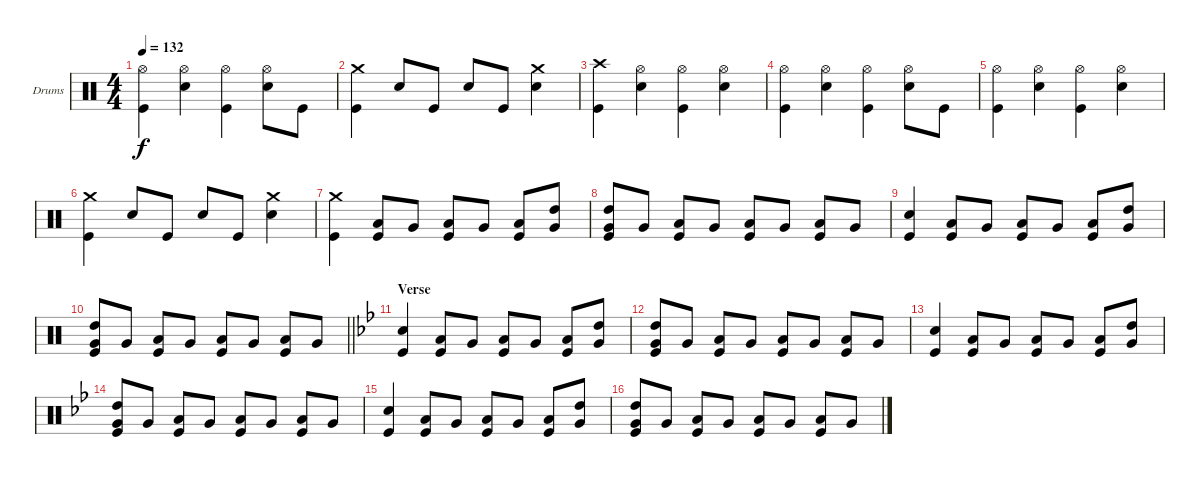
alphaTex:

\bracketExtendMode groupsimilarinstruments
\firstSystemTrackNameOrientation horizontal
\otherSystemsTrackNameOrientation horizontal
\track ("Drumkit" "Drums") {instrument percussion}
\staff {score}
\articulation defaults
\ts (4 4)
\tempo 132
\clef neutral
\ks c
("Hi-Hat (open)" "Kick (hit)").4{dy f} ("Hi-Hat (open)" "Snare (hit) 2").4 ("Hi-Hat (open)" "Kick (hit)").4 ("Hi-Hat (open)" "Snare (hit) 2").8 "Kick (hit)".8 |
("Crash medium (hit)" "Kick (hit)").4 "Snare (hit) 2".8 "Kick (hit)".8 "Snare (hit) 2".8 "Kick (hit)".8 ("Crash medium (hit)" "Snare (hit) 2").4 |
("Crash high (hit)" "Kick (hit)").4 ("Hi-Hat (open)" "Snare (hit) 2").4 ("Hi-Hat (open)" "Kick (hit)").4 ("Hi-Hat (open)" "Snare (hit) 2").4 |
("Hi-Hat (open)" "Kick (hit)").4 ("Hi-Hat (open)" "Snare (hit) 2").4 ("Hi-Hat (open)" "Kick (hit)").4 ("Hi-Hat (open)" "Snare (hit) 2").8 "Kick (hit)".8 |
("Hi-Hat (open)" "Kick (hit)").4 ("Hi-Hat (open)" "Snare (hit) 2").4 ("Hi-Hat (open)" "Kick (hit)").4 ("Hi-Hat (open)" "Snare (hit) 2").4 |
("Crash medium (hit)" "Kick (hit)").4 "Snare (hit) 2".8 "Kick (hit)".8 "Snare (hit) 2".8 "Kick (hit)".8 ("Crash medium (hit)" "Snare (hit) 2").4 |
("Crash medium (hit)" "Kick (hit)").4 ("Low Tom (hit)" "Kick (hit)").8 "Very Low Tom (hit)".8 ("Low Tom (hit)" "Kick (hit)").8 "Very Low Tom (hit)".8 ("Low Tom (hit)" "Kick (hit)").8 ("High Tom (hit)" "Very Low Tom (hit)").8 |
("High Tom (hit)" "Very Low Tom (hit)" "Kick (hit)").8 "Very Low Tom (hit)".8 ("Low Tom (hit)" "Kick (hit)").8 "Very Low Tom (hit)".8 ("Low Tom (hit)" "Kick (hit)").8 "Very Low Tom (hit)".8 ("Low Tom (hit)" "Kick (hit)").8 "Very Low Tom (hit)".8 |
("Snare (hit) 2" "Kick (hit)").4 ("Low Tom (hit)" "Kick (hit)").8 "Very Low Tom (hit)".8 ("Low Tom (hit)" "Kick (hit)").8 "Very Low Tom (hit)".8 ("Low Tom (hit)" "Kick (hit)").8 ("High Tom (hit)" "Very Low Tom (hit)").8 |
\barLineRight lightlight
("High Tom (hit)" "Very Low Tom (hit)" "Kick (hit)").8 "Very Low Tom (hit)".8 ("Low Tom (hit)" "Kick (hit)").8 "Very Low Tom (hit)".8 ("Low Tom (hit)" "Kick (hit)").8 "Very Low Tom (hit)".8 ("Low Tom (hit)" "Kick (hit)").8 "Very Low Tom (hit)".8 |
\section ("" "Verse")
\ks bb
("Snare (hit) 2" "Kick (hit)").4 ("Low Tom (hit)" "Kick (hit)").8 "Very Low Tom (hit)".8 ("Low Tom (hit)" "Kick (hit)").8 "Very Low Tom (hit)".8 ("Low Tom (hit)" "Kick (hit)").8 ("High Tom (hit)" "Very Low Tom (hit)").8 |
("High Tom (hit)" "Very Low Tom (hit)" "Kick (hit)").8 "Very Low Tom (hit)".8 ("Low Tom (hit)" "Kick (hit)").8 "Very Low Tom (hit)".8 ("Low Tom (hit)" "Kick (hit)").8 "Very Low Tom (hit)".8 ("Low Tom (hit)" "Kick (hit)").8 "Very Low Tom (hit)".8 |
("Snare (hit) 2" "Kick (hit)").4 ("Low Tom (hit)" "Kick (hit)").8 "Very Low Tom (hit)".8 ("Low Tom (hit)" "Kick (hit)").8 "Very Low Tom (hit)".8 ("Low Tom (hit)" "Kick (hit)").8 ("High Tom (hit)" "Very Low Tom (hit)").8 |
("High Tom (hit)" "Very Low Tom (hit)" "Kick (hit)").8 "Very Low Tom (hit)".8 ("Low Tom (hit)" "Kick (hit)").8 "Very Low Tom (hit)".8 ("Low Tom (hit)" "Kick (hit)").8 "Very Low Tom (hit)".8 ("Low Tom (hit)" "Kick (hit)").8 "Very Low Tom (hit)".8 |
("Snare (hit) 2" "Kick (hit)").4 ("Low Tom (hit)" "Kick (hit)").8 "Very Low Tom (hit)".8 ("Low Tom (hit)" "Kick (hit)").8 "Very Low Tom (hit)".8 ("Low Tom (hit)" "Kick (hit)").8 ("High Tom (hit)" "Very Low Tom (hit)").8 |
("High Tom (hit)" "Very Low Tom (hit)" "Kick (hit)").8 "Very Low Tom (hit)".8 ("Low Tom (hit)" "Kick (hit)").8 "Very Low Tom (hit)".8 ("Low Tom (hit)" "Kick (hit)").8 "Very Low Tom (hit)".8 ("Low Tom (hit)" "Kick (hit)").8 "Very Low Tom (hit)".8
